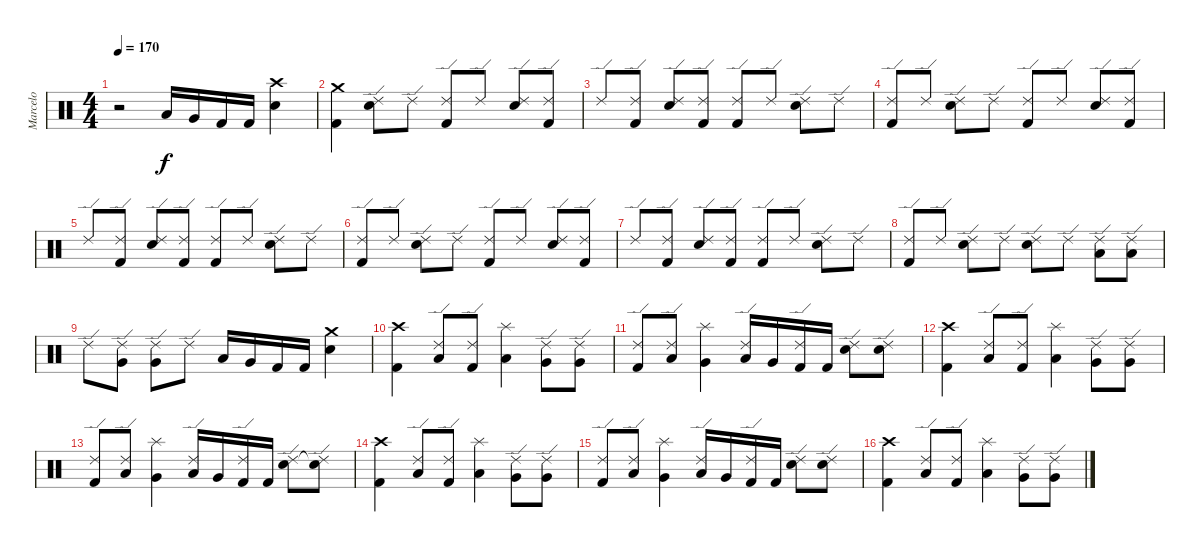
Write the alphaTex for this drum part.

\track ("Marcelo" "Marcelo") {instrument percussion}
\staff {score}
\articulation defaults
\ts (4 4)
\tempo 170
\clef neutral
\ks c
r.2{dy f} "Low Tom (hit)".16 "Very Low Tom (hit)".16 "Kick (hit) 2".16 "Kick (hit) 2".16 ("Crash high (hit)" "Electric Snare (hit)").4 |
("Crash medium (hit)" "Kick (hit) 2").4 ("Ride (edge) 2" "Electric Snare (hit)").8 "Ride (edge) 2".8 ("Ride (edge) 2" "Kick (hit) 2").8 "Ride (edge) 2".8 ("Ride (edge) 2" "Electric Snare (hit)").8 ("Ride (edge) 2" "Kick (hit) 2").8 |
"Ride (edge) 2".8 ("Ride (edge) 2" "Kick (hit) 2").8 ("Ride (edge) 2" "Electric Snare (hit)").8 ("Ride (edge) 2" "Kick (hit) 2").8 ("Ride (edge) 2" "Kick (hit) 2").8 "Ride (edge) 2".8 ("Ride (edge) 2" "Electric Snare (hit)").8 "Ride (edge) 2".8 |
("Ride (edge) 2" "Kick (hit) 2").8 "Ride (edge) 2".8 ("Ride (edge) 2" "Electric Snare (hit)").8 "Ride (edge) 2".8 ("Ride (edge) 2" "Kick (hit) 2").8 "Ride (edge) 2".8 ("Ride (edge) 2" "Electric Snare (hit)").8 ("Ride (edge) 2" "Kick (hit) 2").8 |
"Ride (edge) 2".8 ("Ride (edge) 2" "Kick (hit) 2").8 ("Ride (edge) 2" "Electric Snare (hit)").8 ("Ride (edge) 2" "Kick (hit) 2").8 ("Ride (edge) 2" "Kick (hit) 2").8 "Ride (edge) 2".8 ("Ride (edge) 2" "Electric Snare (hit)").8 "Ride (edge) 2".8 |
("Ride (edge) 2" "Kick (hit) 2").8 "Ride (edge) 2".8 ("Ride (edge) 2" "Electric Snare (hit)").8 "Ride (edge) 2".8 ("Ride (edge) 2" "Kick (hit) 2").8 "Ride (edge) 2".8 ("Ride (edge) 2" "Electric Snare (hit)").8 ("Ride (edge) 2" "Kick (hit) 2").8 |
"Ride (edge) 2".8 ("Ride (edge) 2" "Kick (hit) 2").8 ("Ride (edge) 2" "Electric Snare (hit)").8 ("Ride (edge) 2" "Kick (hit) 2").8 ("Ride (edge) 2" "Kick (hit) 2").8 "Ride (edge) 2".8 ("Ride (edge) 2" "Electric Snare (hit)").8 "Ride (edge) 2".8 |
("Ride (edge) 2" "Kick (hit) 2").8 "Ride (edge) 2".8 ("Ride (edge) 2" "Electric Snare (hit)").8 "Ride (edge) 2".8 ("Ride (edge) 2" "Electric Snare (hit)").8 "Ride (edge) 2".8 ("Ride (edge) 2" "Low Tom (hit)").8 ("Ride (edge) 2" "Low Tom (hit)").8 |
"Ride (edge) 2".8 ("Ride (edge) 2" "Very Low Tom (hit)").8 ("Ride (edge) 2" "Very Low Tom (hit)").8 "Ride (edge) 2".8 "Low Tom (hit)".16 "Very Low Tom (hit)".16 "Kick (hit) 2".16 "Kick (hit) 2".16 ("Crash medium (hit)" "Electric Snare (hit)").4 |
("Crash high (hit)" "Kick (hit) 2").4 ("Ride (edge) 2" "Low Tom (hit)").8 ("Ride (edge) 2" "Kick (hit) 2").8 ("Splash (hit)" "Low Tom (hit)").4 ("Ride (edge) 2" "Very Low Tom (hit)").8 ("Ride (edge) 2" "Very Low Tom (hit)").8 |
("Ride (edge) 2" "Kick (hit) 2").8 ("Ride (edge) 2" "Low Tom (hit)").8 ("Splash (hit)" "Very Low Tom (hit)").4 ("Ride (edge) 2" "Low Tom (hit)").16 "Very Low Tom (hit)".16 ("Ride (edge) 2" "Kick (hit) 2").16 "Kick (hit) 2".16 ("Ride (edge) 2" "Electric Snare (hit)").8 ("Ride (edge) 2" "Electric Snare (hit)").8 |
("Crash high (hit)" "Kick (hit) 2").4 ("Ride (edge) 2" "Low Tom (hit)").8 ("Ride (edge) 2" "Kick (hit) 2").8 ("Splash (hit)" "Low Tom (hit)").4 ("Ride (edge) 2" "Very Low Tom (hit)").8 ("Ride (edge) 2" "Very Low Tom (hit)").8 |
("Ride (edge) 2" "Kick (hit) 2").8 ("Ride (edge) 2" "Low Tom (hit)").8 ("Splash (hit)" "Very Low Tom (hit)").4 ("Ride (edge) 2" "Low Tom (hit)").16 "Very Low Tom (hit)".16 ("Ride (edge) 2" "Kick (hit) 2").16 "Kick (hit) 2".16 ("Ride (edge) 2" "Electric Snare (hit)").8 ("Ride (edge) 2" "Snare (hit)"{t}).8 |
("Crash high (hit)" "Kick (hit) 2").4 ("Ride (edge) 2" "Low Tom (hit)").8 ("Ride (edge) 2" "Kick (hit) 2").8 ("Splash (hit)" "Low Tom (hit)").4 ("Ride (edge) 2" "Very Low Tom (hit)").8 ("Ride (edge) 2" "Very Low Tom (hit)").8 |
("Ride (edge) 2" "Kick (hit) 2").8 ("Ride (edge) 2" "Low Tom (hit)").8 ("Splash (hit)" "Very Low Tom (hit)").4 ("Ride (edge) 2" "Low Tom (hit)").16 "Very Low Tom (hit)".16 ("Ride (edge) 2" "Kick (hit) 2").16 "Kick (hit) 2".16 ("Ride (edge) 2" "Electric Snare (hit)").8 ("Ride (edge) 2" "Electric Snare (hit)").8 |
("Crash high (hit)" "Kick (hit) 2").4 ("Ride (edge) 2" "Low Tom (hit)").8 ("Ride (edge) 2" "Kick (hit) 2").8 ("Splash (hit)" "Low Tom (hit)").4 ("Ride (edge) 2" "Very Low Tom (hit)").8 ("Ride (edge) 2" "Very Low Tom (hit)").8
